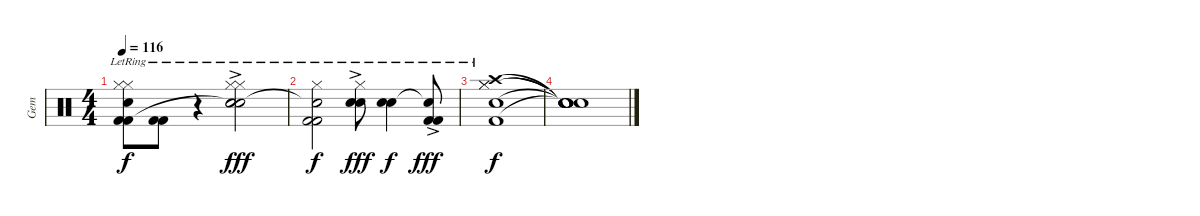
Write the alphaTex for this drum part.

\track ("Gem" "Gem") {instrument percussion}
\staff {score}
\articulation defaults
\ts (4 4)
\tempo 116
\clef neutral
\ks c
("Hi-Hat (closed)"{lr} "Hi-Hat (closed)"{lr} "Kick (hit) 2" "Snare (hit)"{t} "Kick (hit) 2"{lr}).8{dy f} ("Kick (hit) 2" "Kick (hit) 2"{lr}).8 r.4 ("Hi-Hat (closed)"{lr} "Hi-Hat (closed)"{lr} "Snare (hit) 2" "Snare (hit) 2"{ac lr} "Snare (hit)"{t}).2{dy fff} |
("Hi-Hat (closed)"{lr} "Kick (hit) 2" "Snare (hit)"{t} "Kick (hit) 2"{lr}).2{dy f} ("Hi-Hat (closed)"{lr} "Snare (hit) 2" "Snare (hit) 2"{ac lr}).8{dy fff} ("Snare (hit) 2" "Snare (hit) 2"{lr}).4{dy f} ("Kick (hit) 2" "Snare (hit)"{t} "Kick (hit) 2"{ac lr}).8{dy fff} |
("Hi-Hat (closed)"{lr} "Hi-Hat (closed)" "Snare (hit) 2"{lr} "Kick (hit) 2"{lr} "Crash high (hit)"{lr}).1{dy f} |
("Snare (hit)"{t} "Snare (hit)"{t} "Snare (hit)"{t} "Snare (hit)"{t} "Snare (hit)"{t}).1
